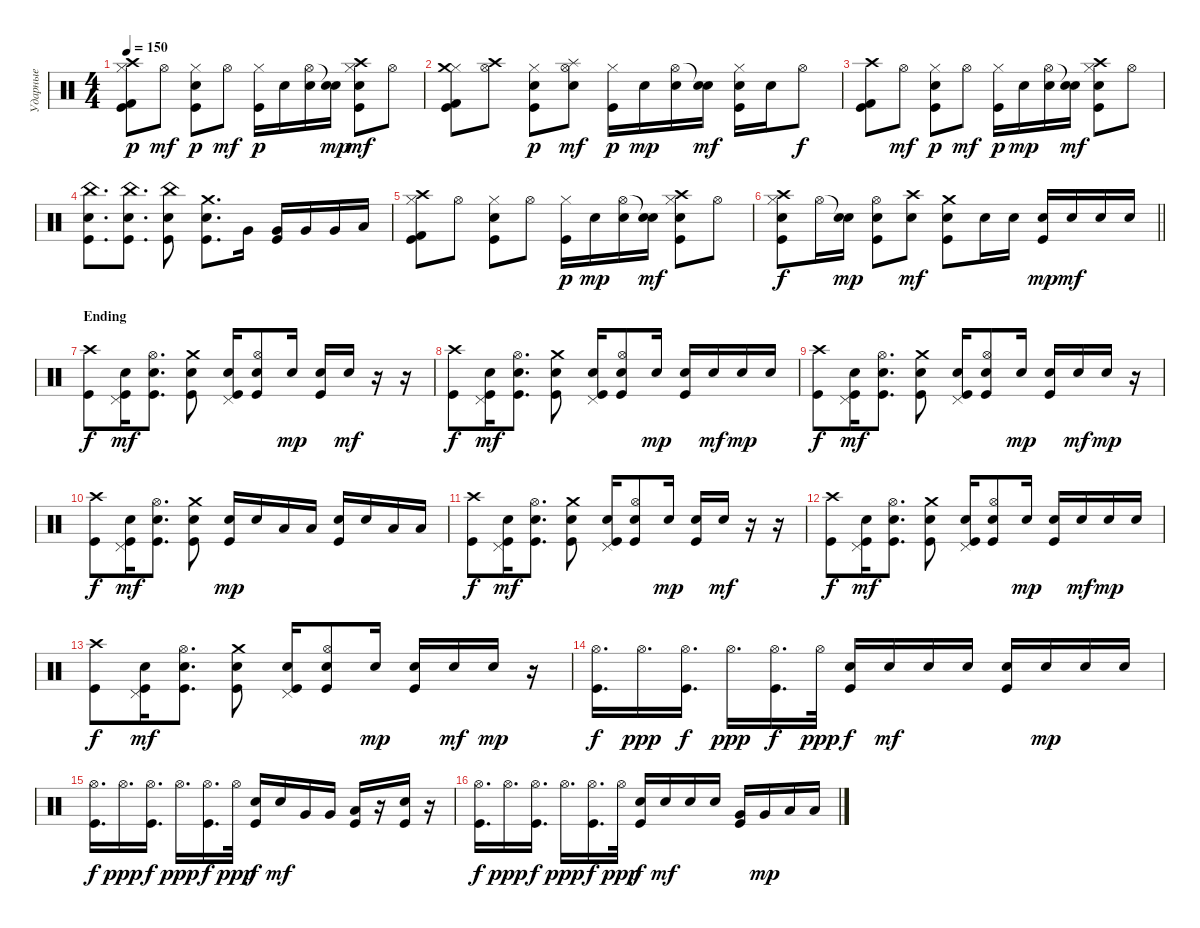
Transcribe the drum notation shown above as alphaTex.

\track ("Ударные" "Ударные") {instrument percussion}
\staff {score}
\articulation defaults
\ts (4 4)
\tempo 150
\clef neutral
\ks c
("Kick (hit) 2" "Kick (hit)" "Hi-Hat (closed)" "Crash high (hit)").8{dy p} "Hi-Hat (open)".8{dy mf} ("Kick (hit)" "Hi-Hat (closed)" "Electric Snare (hit)").8{dy p} "Hi-Hat (open)".8{dy mf} ("Kick (hit)" "Hi-Hat (closed)").16{dy p} "Electric Snare (hit)".16 ("Hi-Hat (open)" "Electric Snare (hit)").16 ("Snare (hit)"{t} "Electric Snare (hit)").16{dy mp} ("Kick (hit)" "Hi-Hat (closed)" "Electric Snare (hit)" "Crash high (hit)").8{dy mf} "Hi-Hat (open)".8 |
("Kick (hit) 2" "Kick (hit)" "Hi-Hat (closed)" "Crash medium (hit)").8 ("Crash high (hit)" "Hi-Hat (open)").8 ("Kick (hit)" "Hi-Hat (closed)" "Electric Snare (hit)").8{dy p} ("Splash (hit)" "Hi-Hat (open)" "Electric Snare (hit)").8{dy mf} ("Kick (hit)" "Hi-Hat (closed)").16{dy p} "Electric Snare (hit)".16{dy mp} ("Hi-Hat (open)" "Electric Snare (hit)").16 ("Snare (hit)"{t} "Electric Snare (hit)").16{dy mf} ("Kick (hit)" "Hi-Hat (closed)" "Electric Snare (hit)").16 "Electric Snare (hit)".16 "Hi-Hat (open)".8{dy f} |
("Kick (hit) 2" "Kick (hit)" "Crash high (hit)").8 "Hi-Hat (open)".8{dy mf} ("Kick (hit)" "Hi-Hat (closed)" "Electric Snare (hit)").8{dy p} "Hi-Hat (open)".8{dy mf} ("Kick (hit)" "Hi-Hat (closed)").16{dy p} "Electric Snare (hit)".16{dy mp} ("Hi-Hat (open)" "Electric Snare (hit)").16 ("Snare (hit)"{t} "Electric Snare (hit)").16{dy mf} ("Kick (hit)" "Hi-Hat (closed)" "Electric Snare (hit)" "Crash high (hit)").8 "Hi-Hat (open)".8 |
("Kick (hit)" "Electric Snare (hit)" "China (hit)").8{d} ("Kick (hit)" "Electric Snare (hit)" "China (hit)").8{d} ("Kick (hit)" "Electric Snare (hit)" "China (hit)").8 ("Kick (hit)" "Electric Snare (hit)" "Crash medium (hit)").8{d} "Very Low Tom (hit)".16 ("Very Low Tom (hit)" "Kick (hit)").16 "Very Low Tom (hit)".16 "Very Low Tom (hit)".16 "Low Tom (hit)".16 |
("Kick (hit) 2" "Kick (hit)" "Hi-Hat (closed)" "Crash high (hit)").8 "Hi-Hat (open)".8 ("Kick (hit)" "Hi-Hat (closed)" "Electric Snare (hit)").8 "Hi-Hat (open)".8 ("Kick (hit)" "Hi-Hat (closed)").16{dy p} "Electric Snare (hit)".16{dy mp} ("Hi-Hat (open)" "Electric Snare (hit)").16 ("Snare (hit)"{t} "Electric Snare (hit)").16{dy mf} ("Kick (hit)" "Hi-Hat (closed)" "Electric Snare (hit)" "Crash high (hit)").8 "Hi-Hat (open)".8 |
\barLineRight lightlight
("Crash high (hit)" "Hi-Hat (closed)" "Electric Snare (hit)" "Kick (hit)").8{dy f} "Hi-Hat (open)".16 ("Snare (hit)"{t} "Snare (hit) 2").16{dy mp} ("Hi-Hat (open)" "Snare (hit) 2" "Kick (hit)").8 ("Crash high (hit)" "Electric Snare (hit)").8{dy mf} ("Crash medium (hit)" "Electric Snare (hit)" "Kick (hit)").8 "Electric Snare (hit)".16 "Electric Snare (hit)".16 ("Electric Snare (hit)" "Kick (hit)").16{dy mp} "Electric Snare (hit)".16{dy mf} "Electric Snare (hit)".16 "Electric Snare (hit)".16 |
\section ("" "Ending")
("Crash high (hit)" "Kick (hit)").8{dy f} ("Pedal Hi-Hat (hit)" "Electric Snare (hit)" "Kick (hit)").16{dy mf} ("Hi-Hat (open)" "Electric Snare (hit)" "Kick (hit)").8{d} ("Crash medium (hit)" "Electric Snare (hit)" "Kick (hit)").8 ("Pedal Hi-Hat (hit)" "Electric Snare (hit)" "Kick (hit)").16 ("Hi-Hat (open)" "Electric Snare (hit)" "Kick (hit)").8 "Electric Snare (hit)".16{dy mp} ("Electric Snare (hit)" "Kick (hit)").16 "Electric Snare (hit)".16{dy mf} r.16 r.16 |
("Crash high (hit)" "Kick (hit)").8{dy f} ("Pedal Hi-Hat (hit)" "Electric Snare (hit)" "Kick (hit)").16{dy mf} ("Hi-Hat (open)" "Electric Snare (hit)" "Kick (hit)").8{d} ("Crash medium (hit)" "Electric Snare (hit)" "Kick (hit)").8 ("Pedal Hi-Hat (hit)" "Electric Snare (hit)" "Kick (hit)").16 ("Hi-Hat (open)" "Electric Snare (hit)" "Kick (hit)").8 "Electric Snare (hit)".16{dy mp} ("Electric Snare (hit)" "Kick (hit)").16 "Electric Snare (hit)".16{dy mf} "Electric Snare (hit)".16{dy mp} "Electric Snare (hit)".16 |
("Crash high (hit)" "Kick (hit)").8{dy f} ("Pedal Hi-Hat (hit)" "Electric Snare (hit)" "Kick (hit)").16{dy mf} ("Hi-Hat (open)" "Electric Snare (hit)" "Kick (hit)").8{d} ("Crash medium (hit)" "Electric Snare (hit)" "Kick (hit)").8 ("Pedal Hi-Hat (hit)" "Electric Snare (hit)" "Kick (hit)").16 ("Hi-Hat (open)" "Electric Snare (hit)" "Kick (hit)").8 "Electric Snare (hit)".16{dy mp} ("Electric Snare (hit)" "Kick (hit)").16 "Electric Snare (hit)".16{dy mf} "Electric Snare (hit)".16{dy mp} r.16 |
("Crash high (hit)" "Kick (hit)").8{dy f} ("Pedal Hi-Hat (hit)" "Electric Snare (hit)" "Kick (hit)").16{dy mf} ("Hi-Hat (open)" "Electric Snare (hit)" "Kick (hit)").8{d} ("Crash medium (hit)" "Electric Snare (hit)" "Kick (hit)").8 ("Electric Snare (hit)" "Kick (hit)").16{dy mp} "Electric Snare (hit)".16 "Low Tom (hit)".16 "Low Tom (hit)".16 ("Electric Snare (hit)" "Kick (hit)").16 "Electric Snare (hit)".16 "Low Tom (hit)".16 "Low Tom (hit)".16 |
("Crash high (hit)" "Kick (hit)").8{dy f} ("Pedal Hi-Hat (hit)" "Electric Snare (hit)" "Kick (hit)").16{dy mf} ("Hi-Hat (open)" "Electric Snare (hit)" "Kick (hit)").8{d} ("Crash medium (hit)" "Electric Snare (hit)" "Kick (hit)").8 ("Pedal Hi-Hat (hit)" "Electric Snare (hit)" "Kick (hit)").16 ("Hi-Hat (open)" "Electric Snare (hit)" "Kick (hit)").8 "Electric Snare (hit)".16{dy mp} ("Electric Snare (hit)" "Kick (hit)").16 "Electric Snare (hit)".16{dy mf} r.16 r.16 |
("Crash high (hit)" "Kick (hit)").8{dy f} ("Pedal Hi-Hat (hit)" "Electric Snare (hit)" "Kick (hit)").16{dy mf} ("Hi-Hat (open)" "Electric Snare (hit)" "Kick (hit)").8{d} ("Crash medium (hit)" "Electric Snare (hit)" "Kick (hit)").8 ("Pedal Hi-Hat (hit)" "Electric Snare (hit)" "Kick (hit)").16 ("Hi-Hat (open)" "Electric Snare (hit)" "Kick (hit)").8 "Electric Snare (hit)".16{dy mp} ("Electric Snare (hit)" "Kick (hit)").16 "Electric Snare (hit)".16{dy mf} "Electric Snare (hit)".16{dy mp} "Electric Snare (hit)".16 |
("Crash high (hit)" "Kick (hit)").8{dy f} ("Pedal Hi-Hat (hit)" "Electric Snare (hit)" "Kick (hit)").16{dy mf} ("Hi-Hat (open)" "Electric Snare (hit)" "Kick (hit)").8{d} ("Crash medium (hit)" "Electric Snare (hit)" "Kick (hit)").8 ("Pedal Hi-Hat (hit)" "Electric Snare (hit)" "Kick (hit)").16 ("Hi-Hat (open)" "Electric Snare (hit)" "Kick (hit)").8 "Electric Snare (hit)".16{dy mp} ("Electric Snare (hit)" "Kick (hit)").16 "Electric Snare (hit)".16{dy mf} "Electric Snare (hit)".16{dy mp} r.16 |
("Hi-Hat (open)" "Kick (hit)").16{d dy f} "Hi-Hat (open)".16{d dy ppp} ("Hi-Hat (open)" "Kick (hit)").16{d dy f} "Hi-Hat (open)".16{d dy ppp} ("Hi-Hat (open)" "Kick (hit)").16{d dy f} "Hi-Hat (open)".32{dy ppp} ("Electric Snare (hit)" "Kick (hit)").16{dy f} "Electric Snare (hit)".16{dy mf} "Electric Snare (hit)".16 "Electric Snare (hit)".16 ("Electric Snare (hit)" "Kick (hit)").16 "Electric Snare (hit)".16{dy mp} "Electric Snare (hit)".16 "Electric Snare (hit)".16 |
("Hi-Hat (open)" "Kick (hit)").16{d dy f} "Hi-Hat (open)".16{d dy ppp} ("Hi-Hat (open)" "Kick (hit)").16{d dy f} "Hi-Hat (open)".16{d dy ppp} ("Hi-Hat (open)" "Kick (hit)").16{d dy f} "Hi-Hat (open)".32{dy ppp} ("Electric Snare (hit)" "Kick (hit)").16{dy f} "Electric Snare (hit)".16{dy mf} "Very Low Tom (hit)".16 "Very Low Tom (hit)".16 ("Low Floor Tom (hit)" "Kick (hit)").16 r.16 ("Electric Snare (hit)" "Kick (hit)").16 r.16 |
("Hi-Hat (open)" "Kick (hit)").16{d dy f} "Hi-Hat (open)".16{d dy ppp} ("Hi-Hat (open)" "Kick (hit)").16{d dy f} "Hi-Hat (open)".16{d dy ppp} ("Hi-Hat (open)" "Kick (hit)").16{d dy f} "Hi-Hat (open)".32{dy ppp} ("Electric Snare (hit)" "Kick (hit)").16{dy f} "Electric Snare (hit)".16{dy mf} "Electric Snare (hit)".16 "Electric Snare (hit)".16 ("Very Low Tom (hit)" "Kick (hit)").16 "Very Low Tom (hit)".16{dy mp} "Low Floor Tom (hit)".16 "Low Floor Tom (hit)".16
